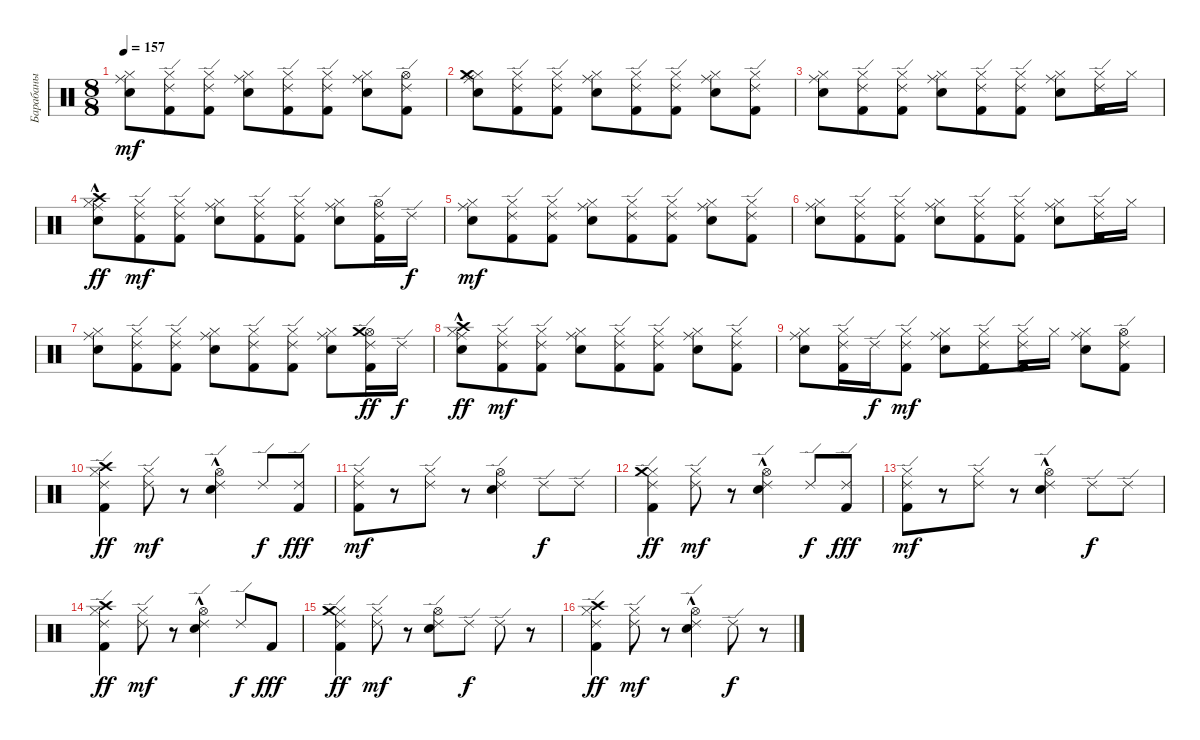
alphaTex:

\track ("Барабаны" "Барабаны") {instrument percussion}
\staff {score}
\articulation defaults
\ts (8 8)
\tempo 157
\clef neutral
\ks c
("Snare (hit) 2" "Hi-Hat (closed)" "Ride (middle)").8{dy mf} ("Kick (hit) 2" "Hi-Hat (closed)" "Ride (edge) 2").8 ("Kick (hit) 2" "Hi-Hat (closed)" "Ride (edge) 2").8 ("Snare (hit) 2" "Hi-Hat (closed)" "Ride (middle)").8 ("Kick (hit) 2" "Hi-Hat (closed)" "Ride (edge) 2").8 ("Kick (hit) 2" "Hi-Hat (closed)" "Ride (edge) 2").8 ("Snare (hit) 2" "Hi-Hat (closed)" "Ride (middle)").8 ("Kick (hit) 2" "Hi-Hat (open)" "Ride (edge) 2").8 |
("Snare (hit) 2" "Hi-Hat (closed)" "Ride (middle)" "Crash medium (hit)").8 ("Kick (hit) 2" "Hi-Hat (closed)" "Ride (edge) 2").8 ("Kick (hit) 2" "Hi-Hat (closed)" "Ride (edge) 2").8 ("Snare (hit) 2" "Hi-Hat (closed)" "Ride (middle)").8 ("Kick (hit) 2" "Hi-Hat (closed)" "Ride (edge) 2").8 ("Kick (hit) 2" "Hi-Hat (closed)" "Ride (edge) 2").8 ("Snare (hit) 2" "Hi-Hat (closed)" "Ride (middle)").8 ("Kick (hit) 2" "Hi-Hat (closed)" "Ride (edge) 2").8 |
("Snare (hit) 2" "Hi-Hat (closed)" "Ride (middle)").8 ("Kick (hit) 2" "Hi-Hat (closed)" "Ride (edge) 2").8 ("Kick (hit) 2" "Hi-Hat (closed)" "Ride (edge) 2").8 ("Snare (hit) 2" "Hi-Hat (closed)" "Ride (middle)").8 ("Kick (hit) 2" "Hi-Hat (closed)" "Ride (edge) 2").8 ("Kick (hit) 2" "Hi-Hat (closed)" "Ride (edge) 2").8 ("Snare (hit) 2" "Hi-Hat (closed)" "Ride (middle)").8 ("Kick (hit) 2" "Hi-Hat (closed)" "Ride (edge) 2").16 "Hi-Hat (closed)".16 |
("Snare (hit) 2" "Hi-Hat (closed)" "Ride (middle)" "Crash high (hit)"{hac}).8{dy ff} ("Kick (hit) 2" "Hi-Hat (closed)" "Ride (edge) 2").8{dy mf} ("Kick (hit) 2" "Hi-Hat (closed)" "Ride (edge) 2").8 ("Snare (hit) 2" "Hi-Hat (closed)" "Ride (middle)").8 ("Kick (hit) 2" "Hi-Hat (closed)" "Ride (edge) 2").8 ("Kick (hit) 2" "Hi-Hat (closed)" "Ride (edge) 2").8 ("Snare (hit) 2" "Hi-Hat (closed)" "Ride (middle)").8 ("Kick (hit) 2" "Hi-Hat (open)" "Ride (edge) 2").16 "Ride (edge) 2".16{dy f} |
("Snare (hit) 2" "Hi-Hat (closed)" "Ride (middle)").8{dy mf} ("Kick (hit) 2" "Hi-Hat (closed)" "Ride (edge) 2").8 ("Kick (hit) 2" "Hi-Hat (closed)" "Ride (edge) 2").8 ("Snare (hit) 2" "Hi-Hat (closed)" "Ride (middle)").8 ("Kick (hit) 2" "Hi-Hat (closed)" "Ride (edge) 2").8 ("Kick (hit) 2" "Hi-Hat (closed)" "Ride (edge) 2").8 ("Snare (hit) 2" "Hi-Hat (closed)" "Ride (middle)").8 ("Kick (hit) 2" "Hi-Hat (closed)" "Ride (edge) 2").8 |
("Snare (hit) 2" "Hi-Hat (closed)" "Ride (middle)").8 ("Kick (hit) 2" "Hi-Hat (closed)" "Ride (edge) 2").8 ("Kick (hit) 2" "Hi-Hat (closed)" "Ride (edge) 2").8 ("Snare (hit) 2" "Hi-Hat (closed)" "Ride (middle)").8 ("Kick (hit) 2" "Hi-Hat (closed)" "Ride (edge) 2").8 ("Kick (hit) 2" "Hi-Hat (closed)" "Ride (edge) 2").8 ("Snare (hit) 2" "Hi-Hat (closed)" "Ride (middle)").8 ("Kick (hit) 2" "Hi-Hat (closed)" "Ride (edge) 2").16 "Hi-Hat (closed)".16 |
("Snare (hit) 2" "Hi-Hat (closed)" "Ride (middle)").8 ("Kick (hit) 2" "Hi-Hat (closed)" "Ride (edge) 2").8 ("Kick (hit) 2" "Hi-Hat (closed)" "Ride (edge) 2").8 ("Snare (hit) 2" "Hi-Hat (closed)" "Ride (middle)").8 ("Kick (hit) 2" "Hi-Hat (closed)" "Ride (edge) 2").8 ("Kick (hit) 2" "Hi-Hat (closed)" "Ride (edge) 2").8 ("Snare (hit) 2" "Hi-Hat (closed)" "Ride (middle)").8 ("Kick (hit) 2" "Hi-Hat (open)" "Ride (edge) 2" "Crash medium (hit)").16{dy ff} "Ride (edge) 2".16{dy f} |
("Snare (hit) 2" "Hi-Hat (closed)" "Ride (middle)" "Crash high (hit)"{hac}).8{dy ff} ("Kick (hit) 2" "Hi-Hat (closed)" "Ride (edge) 2").8{dy mf} ("Kick (hit) 2" "Hi-Hat (closed)" "Ride (edge) 2").8 ("Snare (hit) 2" "Hi-Hat (closed)" "Ride (middle)").8 ("Kick (hit) 2" "Hi-Hat (closed)" "Ride (edge) 2").8 ("Kick (hit) 2" "Hi-Hat (closed)" "Ride (edge) 2").8 ("Snare (hit) 2" "Hi-Hat (closed)" "Ride (middle)").8 ("Kick (hit) 2" "Hi-Hat (closed)" "Ride (edge) 2").8 |
("Snare (hit) 2" "Hi-Hat (closed)" "Ride (middle)").8 ("Kick (hit) 2" "Hi-Hat (closed)" "Ride (edge) 2").16 "Ride (edge) 2".16{dy f} ("Kick (hit) 2" "Hi-Hat (closed)" "Ride (edge) 2").8{dy mf} ("Snare (hit) 2" "Hi-Hat (closed)" "Ride (middle)").8 ("Kick (hit) 2" "Hi-Hat (closed)" "Ride (edge) 2").8 ("Kick (hit) 2" "Hi-Hat (closed)" "Ride (edge) 2").16 "Hi-Hat (closed)".16 ("Snare (hit) 2" "Hi-Hat (closed)" "Ride (middle)").8 ("Kick (hit) 2" "Hi-Hat (open)" "Ride (edge) 2").8 |
("Kick (hit) 2" "Hi-Hat (closed)" "Ride (edge) 2" "Crash high (hit)").4{dy ff} ("Hi-Hat (closed)" "Ride (edge) 2").8{dy mf} r.8 ("Snare (hit) 2" "Hi-Hat (open)"{hac} "Ride (edge) 2").4 "Ride (edge) 2".8{dy f} ("Kick (hit) 2" "Ride (edge) 2").8{dy fff} |
("Kick (hit) 2" "Hi-Hat (closed)" "Ride (edge) 2").8{dy mf} r.8 ("Hi-Hat (closed)" "Ride (edge) 2").8 r.8 ("Snare (hit) 2" "Hi-Hat (open)" "Ride (edge) 2").4 "Ride (edge) 2".8{dy f} "Ride (edge) 2".8 |
("Kick (hit) 2" "Hi-Hat (closed)" "Ride (edge) 2" "Crash medium (hit)").4{dy ff} ("Hi-Hat (closed)" "Ride (edge) 2").8{dy mf} r.8 ("Snare (hit) 2" "Hi-Hat (open)"{hac} "Ride (edge) 2").4 "Ride (edge) 2".8{dy f} ("Kick (hit) 2" "Ride (edge) 2").8{dy fff} |
("Kick (hit) 2" "Hi-Hat (closed)" "Ride (edge) 2").8{dy mf} r.8 ("Hi-Hat (closed)" "Ride (edge) 2").8 r.8 ("Snare (hit) 2" "Hi-Hat (open)"{hac} "Ride (edge) 2").4 "Ride (edge) 2".8{dy f} "Ride (edge) 2".8 |
("Kick (hit) 2" "Hi-Hat (closed)" "Ride (edge) 2" "Crash high (hit)").4{dy ff} ("Hi-Hat (closed)" "Ride (edge) 2").8{dy mf} r.8 ("Snare (hit) 2" "Hi-Hat (open)"{hac} "Ride (edge) 2").4 "Ride (edge) 2".8{dy f} "Kick (hit) 2".8{dy fff} |
("Kick (hit) 2" "Hi-Hat (closed)" "Ride (edge) 2" "Crash medium (hit)").4{dy ff} ("Hi-Hat (closed)" "Ride (edge) 2").8{dy mf} r.8 ("Snare (hit) 2" "Hi-Hat (open)" "Ride (edge) 2").8 "Ride (edge) 2".8{dy f} "Ride (edge) 2".8 r.8 |
("Kick (hit) 2" "Hi-Hat (closed)" "Ride (edge) 2" "Crash high (hit)").4{dy ff} ("Hi-Hat (closed)" "Ride (edge) 2").8{dy mf} r.8 ("Snare (hit) 2" "Hi-Hat (open)"{hac} "Ride (edge) 2").4 "Ride (edge) 2".8{dy f} r.8
